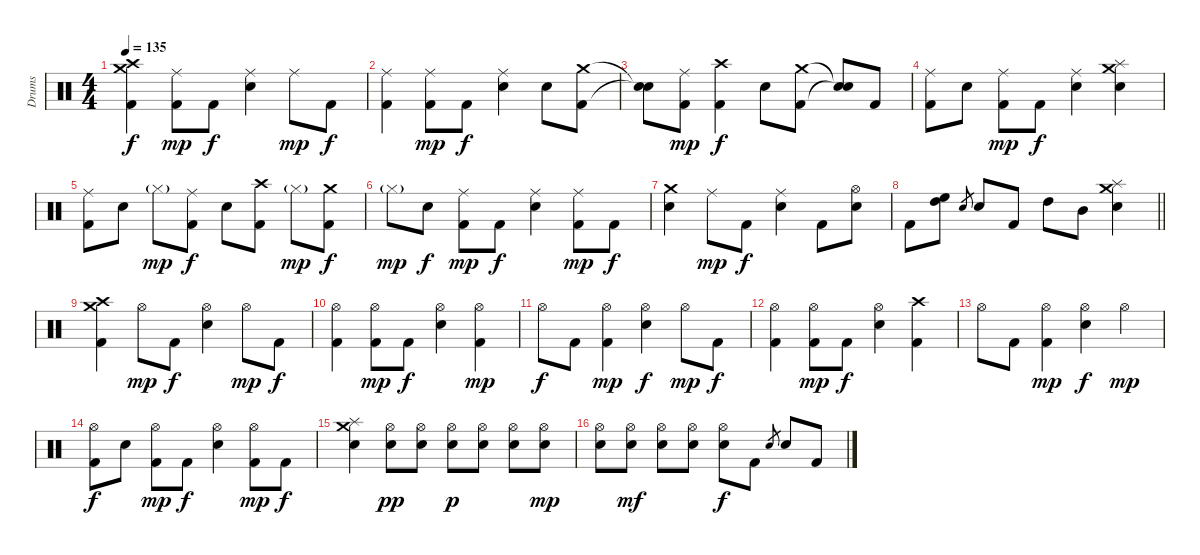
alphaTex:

\track ("Drums" "Drums") {instrument percussion}
\staff {score}
\articulation defaults
\ts (4 4)
\tempo 135
\clef neutral
\ks c
("Crash high (hit)" "Crash medium (hit)" "Kick (hit) 2").4{dy f} ("Ride (middle)" "Kick (hit) 2").8{dy mp} "Kick (hit) 2".8{dy f} ("Ride (middle)" "Electric Snare (hit)").4 "Ride (middle)".8{dy mp} "Kick (hit) 2".8{dy f} |
("Ride (middle)" "Kick (hit) 2").4 ("Ride (middle)" "Kick (hit) 2").8{dy mp} "Kick (hit) 2".8{dy f} ("Ride (middle)" "Electric Snare (hit)").4 "Electric Snare (hit)".8 ("Crash medium (hit)" "Kick (hit) 2").8 |
("Snare (hit)"{t} "Snare (hit)"{t}).8 ("Ride (middle)" "Kick (hit) 2").8{dy mp} ("Crash high (hit)" "Kick (hit) 2").4{dy f} "Electric Snare (hit)".8 ("Crash medium (hit)" "Kick (hit) 2").8 ("Snare (hit)"{t} "Snare (hit)"{t}).8 "Kick (hit) 2".8 |
("Ride (middle)" "Kick (hit) 2").8 "Electric Snare (hit)".8 ("Ride (middle)" "Kick (hit) 2").8{dy mp} "Kick (hit) 2".8{dy f} ("Ride (middle)" "Electric Snare (hit)").4 ("Crash medium (hit)" "Splash (hit)" "Electric Snare (hit)").4 |
("Ride (middle)" "Kick (hit) 2").8 "Electric Snare (hit)".8 "Hi-Hat (closed)"{g}.8{dy mp} ("Ride (middle)" "Kick (hit) 2").8{dy f} "Electric Snare (hit)".8 ("Crash high (hit)" "Kick (hit) 2").8 "Hi-Hat (closed)"{g}.8{dy mp} ("Crash medium (hit)" "Kick (hit) 2").8{dy f} |
"Hi-Hat (closed)"{g}.8{dy mp} "Electric Snare (hit)".8{dy f} ("Ride (middle)" "Kick (hit) 2").8{dy mp} "Kick (hit) 2".8{dy f} ("Ride (middle)" "Electric Snare (hit)").4 ("Ride (middle)" "Kick (hit) 2").8{dy mp} "Kick (hit) 2".8{dy f} |
("Crash medium (hit)" "Electric Snare (hit)").4 "Ride (middle)".8{dy mp} "Kick (hit) 2".8{dy f} ("Ride (middle)" "Electric Snare (hit)").4 "Kick (hit) 2".8 ("Hi-Hat (open)" "Electric Snare (hit)").8 |
\barLineRight lightlight "Kick (hit) 2".8
("High Floor Tom (hit)" "High Tom (hit)").8 "Electric Snare (hit)".8{gr} "Electric Snare (hit)".8 "Kick (hit) 2".8 "High Tom (hit)".8 "Mid Tom (hit)".8 ("Crash medium (hit)" "Splash (hit)" "Electric Snare (hit)").4 |
("Crash high (hit)" "Crash medium (hit)" "Kick (hit) 2").4 "Hi-Hat (open)".8{dy mp} "Kick (hit) 2".8{dy f} ("Hi-Hat (open)" "Electric Snare (hit)").4 "Hi-Hat (open)".8{dy mp} "Kick (hit) 2".8{dy f} |
("Hi-Hat (open)" "Kick (hit) 2").4 ("Hi-Hat (open)" "Kick (hit) 2").8{dy mp} "Kick (hit) 2".8{dy f} ("Hi-Hat (open)" "Electric Snare (hit)").4 ("Hi-Hat (open)" "Kick (hit) 2").4{dy mp} |
"Hi-Hat (open)".8{dy f} "Kick (hit) 2".8 ("Hi-Hat (open)" "Kick (hit) 2").4{dy mp} ("Hi-Hat (open)" "Electric Snare (hit)").4{dy f} "Hi-Hat (open)".8{dy mp} "Kick (hit) 2".8{dy f} |
("Hi-Hat (open)" "Kick (hit) 2").4 ("Hi-Hat (open)" "Kick (hit) 2").8{dy mp} "Kick (hit) 2".8{dy f} ("Hi-Hat (open)" "Electric Snare (hit)").4 ("Crash high (hit)" "Kick (hit) 2").4 |
"Hi-Hat (open)".8 "Kick (hit) 2".8 ("Hi-Hat (open)" "Kick (hit) 2").4{dy mp} ("Hi-Hat (open)" "Electric Snare (hit)").4{dy f} "Hi-Hat (open)".4{dy mp} |
("Hi-Hat (open)" "Kick (hit) 2").8{dy f} "Electric Snare (hit)".8 ("Hi-Hat (open)" "Kick (hit) 2").8{dy mp} "Kick (hit) 2".8{dy f} ("Hi-Hat (open)" "Electric Snare (hit)").4 ("Hi-Hat (open)" "Kick (hit) 2").8{dy mp} "Kick (hit) 2".8{dy f} |
("Crash medium (hit)" "Splash (hit)" "Electric Snare (hit)").4 ("Hi-Hat (open)" "Electric Snare (hit)").8{dy pp} ("Hi-Hat (open)" "Electric Snare (hit)").8 ("Hi-Hat (open)" "Electric Snare (hit)").8{dy p} ("Hi-Hat (open)" "Electric Snare (hit)").8 ("Hi-Hat (open)" "Electric Snare (hit)").8 ("Hi-Hat (open)" "Electric Snare (hit)").8{dy mp} |
("Hi-Hat (open)" "Electric Snare (hit)").8 ("Hi-Hat (open)" "Electric Snare (hit)").8{dy mf} ("Hi-Hat (open)" "Electric Snare (hit)").8 ("Hi-Hat (open)" "Electric Snare (hit)").8 ("Hi-Hat (open)" "Electric Snare (hit)").8{dy f} "Kick (hit) 2".8 "Electric Snare (hit)".8{gr} "Electric Snare (hit)".8 "Kick (hit) 2".8
